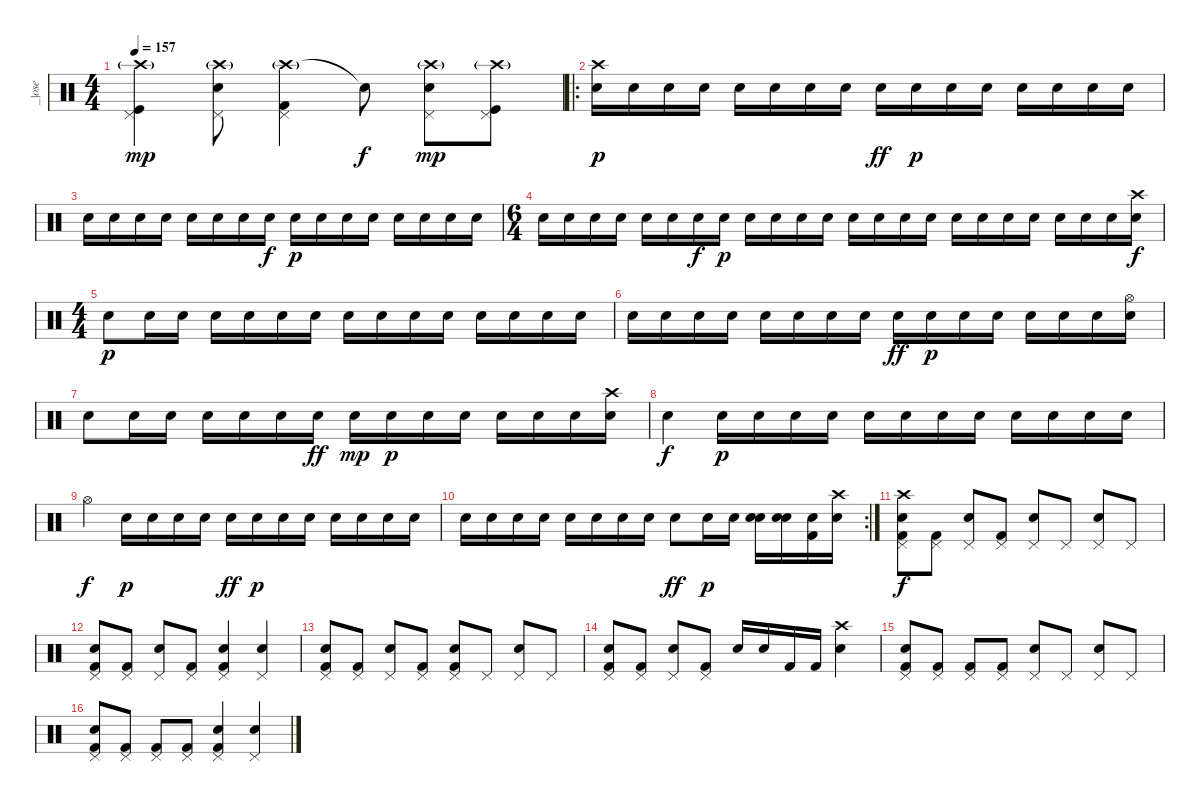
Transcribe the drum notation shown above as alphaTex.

\track ("_|ose" "_|ose") {instrument percussion}
\staff {score}
\articulation defaults
\ts (4 4)
\tempo 157
\clef neutral
\ks c
("Crash high (hit)"{g} "Pedal Hi-Hat (hit)" "Kick (hit)").4{dy mp} ("Crash high (hit)"{g} "Pedal Hi-Hat (hit)" "Electric Snare (hit)").8 ("Crash high (hit)"{g} "Pedal Hi-Hat (hit)" "Kick (hit) 2").4 "Snare (hit)"{t}.8{dy f} ("Crash high (hit)"{g} "Pedal Hi-Hat (hit)" "Electric Snare (hit)").8{dy mp} ("Crash high (hit)"{g} "Kick (hit)" "Pedal Hi-Hat (hit)").8 |
\ro
("Crash high (hit)" "Electric Snare (hit)").16{dy p} "Electric Snare (hit)".16 "Electric Snare (hit)".16 "Electric Snare (hit)".16 "Electric Snare (hit)".16 "Electric Snare (hit)".16 "Electric Snare (hit)".16 "Electric Snare (hit)".16 "Electric Snare (hit)".16{dy ff} "Electric Snare (hit)".16{dy p} "Electric Snare (hit)".16 "Electric Snare (hit)".16 "Electric Snare (hit)".16 "Electric Snare (hit)".16 "Electric Snare (hit)".16 "Electric Snare (hit)".16 |
"Electric Snare (hit)".16 "Electric Snare (hit)".16 "Electric Snare (hit)".16 "Electric Snare (hit)".16 "Electric Snare (hit)".16 "Electric Snare (hit)".16 "Electric Snare (hit)".16 "Electric Snare (hit)".16{dy f} "Electric Snare (hit)".16{dy p} "Electric Snare (hit)".16 "Electric Snare (hit)".16 "Electric Snare (hit)".16 "Electric Snare (hit)".16 "Electric Snare (hit)".16 "Electric Snare (hit)".16 "Electric Snare (hit)".16 |
\ts (6 4)
"Electric Snare (hit)".16 "Electric Snare (hit)".16 "Electric Snare (hit)".16 "Electric Snare (hit)".16 "Electric Snare (hit)".16 "Electric Snare (hit)".16 "Electric Snare (hit)".16{dy f} "Electric Snare (hit)".16{dy p} "Electric Snare (hit)".16 "Electric Snare (hit)".16 "Electric Snare (hit)".16 "Electric Snare (hit)".16 "Electric Snare (hit)".16 "Electric Snare (hit)".16 "Electric Snare (hit)".16 "Electric Snare (hit)".16 "Electric Snare (hit)".16 "Electric Snare (hit)".16 "Electric Snare (hit)".16 "Electric Snare (hit)".16 "Electric Snare (hit)".16 "Electric Snare (hit)".16 "Electric Snare (hit)".16 ("Crash high (hit)" "Electric Snare (hit)").16{dy f} |
\ts (4 4)
"Electric Snare (hit)".8{dy p} "Electric Snare (hit)".16 "Electric Snare (hit)".16 "Electric Snare (hit)".16 "Electric Snare (hit)".16 "Electric Snare (hit)".16 "Electric Snare (hit)".16 "Electric Snare (hit)".16 "Electric Snare (hit)".16 "Electric Snare (hit)".16 "Electric Snare (hit)".16 "Electric Snare (hit)".16 "Electric Snare (hit)".16 "Electric Snare (hit)".16 "Electric Snare (hit)".16 |
"Electric Snare (hit)".16 "Electric Snare (hit)".16 "Electric Snare (hit)".16 "Electric Snare (hit)".16 "Electric Snare (hit)".16 "Electric Snare (hit)".16 "Electric Snare (hit)".16 "Electric Snare (hit)".16 "Electric Snare (hit)".16{dy ff} "Electric Snare (hit)".16{dy p} "Electric Snare (hit)".16 "Electric Snare (hit)".16 "Electric Snare (hit)".16 "Electric Snare (hit)".16 "Electric Snare (hit)".16 ("Hi-Hat (open)" "Electric Snare (hit)").16 |
"Electric Snare (hit)".8 "Electric Snare (hit)".16 "Electric Snare (hit)".16 "Electric Snare (hit)".16 "Electric Snare (hit)".16 "Electric Snare (hit)".16 "Electric Snare (hit)".16{dy ff} "Electric Snare (hit)".16{dy mp} "Electric Snare (hit)".16{dy p} "Electric Snare (hit)".16 "Electric Snare (hit)".16 "Electric Snare (hit)".16 "Electric Snare (hit)".16 "Electric Snare (hit)".16 ("Crash high (hit)" "Electric Snare (hit)").16 |
"Electric Snare (hit)".4{dy f} "Electric Snare (hit)".16{dy p} "Electric Snare (hit)".16 "Electric Snare (hit)".16 "Electric Snare (hit)".16 "Electric Snare (hit)".16 "Electric Snare (hit)".16 "Electric Snare (hit)".16 "Electric Snare (hit)".16 "Electric Snare (hit)".16 "Electric Snare (hit)".16 "Electric Snare (hit)".16 "Electric Snare (hit)".16 |
"Hi-Hat (open)".4{dy f} "Electric Snare (hit)".16{dy p} "Electric Snare (hit)".16 "Electric Snare (hit)".16 "Electric Snare (hit)".16 "Electric Snare (hit)".16{dy ff} "Electric Snare (hit)".16{dy p} "Electric Snare (hit)".16 "Electric Snare (hit)".16 "Electric Snare (hit)".16 "Electric Snare (hit)".16 "Electric Snare (hit)".16 "Electric Snare (hit)".16 |
\rc 2 "Electric Snare (hit)".16 "Electric Snare (hit)".16 "Electric Snare (hit)".16 "Electric Snare (hit)".16 "Electric Snare (hit)".16 "Electric Snare (hit)".16 "Electric Snare (hit)".16 "Electric Snare (hit)".16 "Electric Snare (hit)".8{dy ff} "Electric Snare (hit)".16{dy p} "Electric Snare (hit)".16
("Snare (hit) 2" "Electric Snare (hit)").16 ("Snare (hit) 2" "Electric Snare (hit)").16 ("Kick (hit) 2" "Electric Snare (hit)").16 ("Crash high (hit)" "Electric Snare (hit)").16 |
("Crash high (hit)" "Pedal Hi-Hat (hit)" "Electric Snare (hit)" "Kick (hit) 2").8{dy f} ("Pedal Hi-Hat (hit)" "Kick (hit) 2").8 ("Pedal Hi-Hat (hit)" "Electric Snare (hit)").8 ("Pedal Hi-Hat (hit)" "Kick (hit) 2").8 ("Pedal Hi-Hat (hit)" "Electric Snare (hit)").8 "Pedal Hi-Hat (hit)".8 ("Pedal Hi-Hat (hit)" "Electric Snare (hit)").8 "Pedal Hi-Hat (hit)".8 |
("Pedal Hi-Hat (hit)" "Electric Snare (hit)" "Kick (hit) 2").8 ("Pedal Hi-Hat (hit)" "Kick (hit) 2").8 ("Pedal Hi-Hat (hit)" "Electric Snare (hit)").8 ("Pedal Hi-Hat (hit)" "Kick (hit) 2").8 ("Pedal Hi-Hat (hit)" "Electric Snare (hit)" "Kick (hit) 2").4 ("Pedal Hi-Hat (hit)" "Electric Snare (hit)").4 |
("Pedal Hi-Hat (hit)" "Electric Snare (hit)" "Kick (hit) 2").8 ("Pedal Hi-Hat (hit)" "Kick (hit) 2").8 ("Pedal Hi-Hat (hit)" "Electric Snare (hit)").8 ("Pedal Hi-Hat (hit)" "Kick (hit) 2").8 ("Pedal Hi-Hat (hit)" "Electric Snare (hit)" "Kick (hit) 2").8 "Pedal Hi-Hat (hit)".8 ("Pedal Hi-Hat (hit)" "Electric Snare (hit)").8 "Pedal Hi-Hat (hit)".8 |
("Pedal Hi-Hat (hit)" "Electric Snare (hit)" "Kick (hit) 2").8 ("Pedal Hi-Hat (hit)" "Kick (hit) 2").8 ("Pedal Hi-Hat (hit)" "Electric Snare (hit)").8 ("Pedal Hi-Hat (hit)" "Kick (hit) 2").8 "Electric Snare (hit)".16 "Electric Snare (hit)".16 "Kick (hit) 2".16 "Kick (hit) 2".16 ("Crash high (hit)" "Electric Snare (hit)").4 |
("Pedal Hi-Hat (hit)" "Electric Snare (hit)" "Kick (hit) 2").8 ("Pedal Hi-Hat (hit)" "Kick (hit) 2").8 ("Pedal Hi-Hat (hit)" "Kick (hit) 2").8 ("Pedal Hi-Hat (hit)" "Kick (hit) 2").8 ("Pedal Hi-Hat (hit)" "Electric Snare (hit)").8 "Pedal Hi-Hat (hit)".8 ("Pedal Hi-Hat (hit)" "Electric Snare (hit)").8 "Pedal Hi-Hat (hit)".8 |
("Pedal Hi-Hat (hit)" "Electric Snare (hit)" "Kick (hit) 2").8 ("Pedal Hi-Hat (hit)" "Kick (hit) 2").8 ("Pedal Hi-Hat (hit)" "Kick (hit) 2").8 ("Pedal Hi-Hat (hit)" "Kick (hit) 2").8 ("Pedal Hi-Hat (hit)" "Electric Snare (hit)" "Kick (hit) 2").4 ("Pedal Hi-Hat (hit)" "Electric Snare (hit)").4
